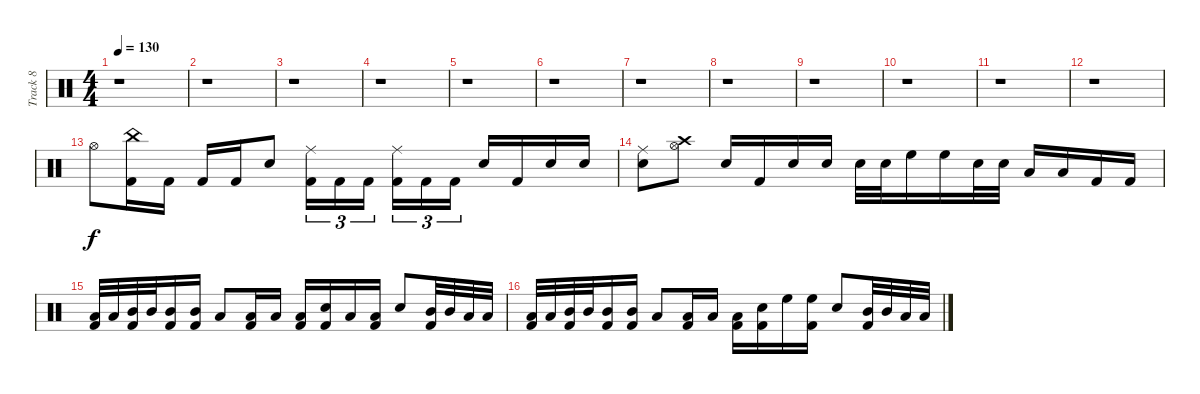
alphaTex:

\track ("Track 8" "Track 8") {instrument percussion}
\staff {score}
\articulation defaults
\ts (4 4)
\tempo 130
\clef neutral
\ks c
r.1{dy f} |
r.1 |
r.1 |
r.1 |
r.1 |
r.1 |
r.1 |
r.1 |
r.1 |
r.1 |
r.1 |
r.1 |
"Hi-Hat (open)".8 ("Kick (hit) 2" "China (hit)").16 "Kick (hit) 2".16 "Kick (hit) 2".16 "Kick (hit) 2".16 "Snare (hit) 2".8 ("Kick (hit) 2" "Ride (middle)").16{tu (3 2)} "Kick (hit) 2".16{tu (3 2)} "Kick (hit) 2".16{tu (3 2) beam splitsecondary} ("Kick (hit) 2" "Ride (middle)").16{tu (3 2)} "Kick (hit) 2".16{tu (3 2)} "Kick (hit) 2".16{tu (3 2)} "Snare (hit) 2".16 "Kick (hit) 2".16 "Snare (hit) 2".16 "Snare (hit) 2".16 |
("Snare (hit) 2" "Ride (middle)").8 ("Crash high (hit)" "Hi-Hat (open)").8 "Snare (hit) 2".16 "Kick (hit) 2".16 "Snare (hit) 2".16 "Snare (hit) 2".16 "Snare (hit) 2".32 "Snare (hit) 2".32 "High Floor Tom (hit)".16 "High Floor Tom (hit)".16 "Snare (hit) 2".32 "Snare (hit) 2".32 "Low Tom (hit)".16 "Low Tom (hit)".16 "Kick (hit) 2".16 "Kick (hit) 2".16 |
("Low Tom (hit)" "Kick (hit) 2").32 "Low Tom (hit)".32 ("Mid Tom (hit)" "Kick (hit) 2").32 "Mid Tom (hit)".32 ("Mid Tom (hit)" "Kick (hit) 2").16 ("Mid Tom (hit)" "Kick (hit) 2").16 "Low Floor Tom (hit)".8 ("Low Floor Tom (hit)" "Kick (hit) 2").16 "Low Tom (hit)".16 ("Low Tom (hit)" "Kick (hit) 2").16 ("Snare (hit) 2" "Kick (hit) 2").16 "Low Floor Tom (hit)".16 ("Low Tom (hit)" "Kick (hit) 2").16 "Snare (hit) 2".8 ("Mid Tom (hit)" "Kick (hit) 2").32 "Mid Tom (hit)".32 "Low Tom (hit)".32 "Low Tom (hit)".32 |
("Low Tom (hit)" "Kick (hit) 2").32 "Low Tom (hit)".32 ("Mid Tom (hit)" "Kick (hit) 2").32 "Mid Tom (hit)".32 ("Mid Tom (hit)" "Kick (hit) 2").16 ("Mid Tom (hit)" "Kick (hit) 2").16 "Low Floor Tom (hit)".8 ("Low Floor Tom (hit)" "Kick (hit) 2").16 "Low Tom (hit)".16 ("Low Tom (hit)" "Kick (hit) 2").16 ("Snare (hit) 2" "Kick (hit) 2").16 "High Floor Tom (hit)".16 ("High Floor Tom (hit)" "Kick (hit) 2").16 "Snare (hit) 2".8 ("Mid Tom (hit)" "Kick (hit) 2").32 "Mid Tom (hit)".32 "Low Tom (hit)".32 "Low Tom (hit)".32
